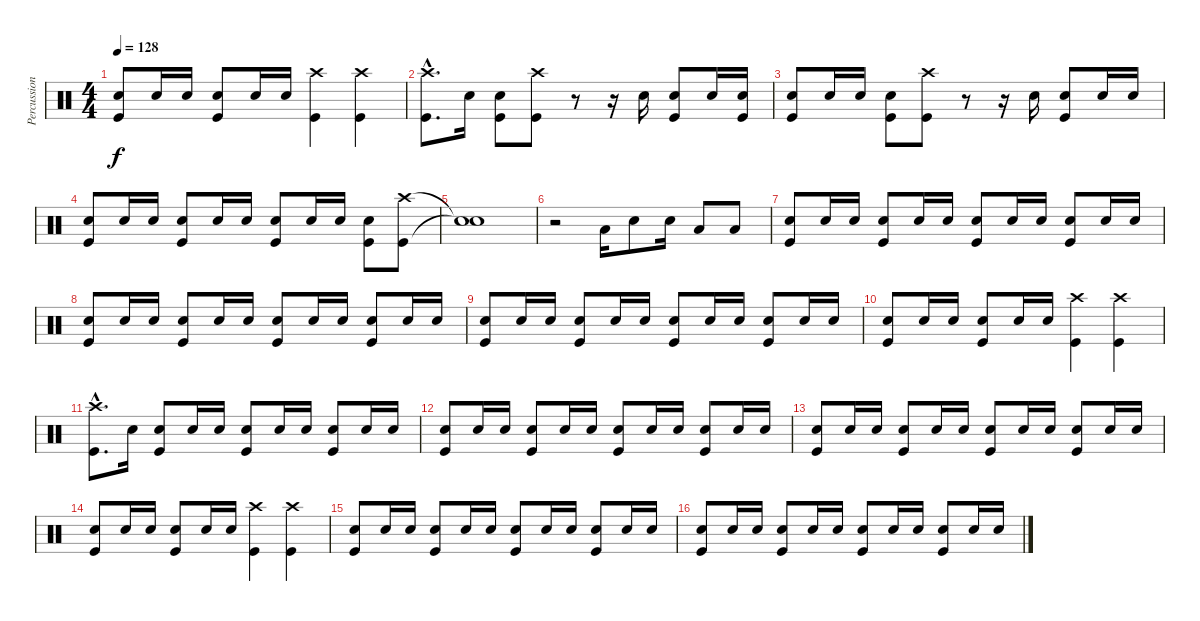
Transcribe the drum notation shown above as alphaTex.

\track ("Percussion" "Percussion") {instrument percussion}
\staff {score}
\articulation defaults
\ts (4 4)
\tempo 128
\clef neutral
\ks c
("Snare (hit) 2" "Kick (hit)").8{dy f} "Snare (hit) 2".16 "Snare (hit) 2".16 ("Snare (hit) 2" "Kick (hit)").8 "Snare (hit) 2".16 "Snare (hit) 2".16 ("Crash high (hit)" "Kick (hit)").4 ("Crash high (hit)" "Kick (hit)").4 |
("Crash high (hit)"{hac} "Kick (hit)"{hac}).8{d} "Snare (hit) 2".16 ("Snare (hit) 2" "Kick (hit)").8 ("Crash high (hit)" "Kick (hit)").8 r.8 r.16 "Snare (hit) 2".16 ("Snare (hit) 2" "Kick (hit)").8 "Snare (hit) 2".16 ("Snare (hit) 2" "Kick (hit)").16 |
("Snare (hit) 2" "Kick (hit)").8 "Snare (hit) 2".16 "Snare (hit) 2".16 ("Snare (hit) 2" "Kick (hit)").8 ("Crash high (hit)" "Kick (hit)").8 r.8 r.16 "Snare (hit) 2".16 ("Snare (hit) 2" "Kick (hit)").8 "Snare (hit) 2".16 "Snare (hit) 2".16 |
("Snare (hit) 2" "Kick (hit)").8 "Snare (hit) 2".16 "Snare (hit) 2".16 ("Snare (hit) 2" "Kick (hit)").8 "Snare (hit) 2".16 "Snare (hit) 2".16 ("Snare (hit) 2" "Kick (hit)").8 "Snare (hit) 2".16 "Snare (hit) 2".16 ("Snare (hit) 2" "Kick (hit)").8 ("Crash high (hit)" "Kick (hit)").8 |
("Snare (hit)"{t} "Snare (hit)"{t}).1 |
r.2 "Low Tom (hit)".16 "Snare (hit) 2".8 "Snare (hit) 2".16 "Low Tom (hit)".8 "Low Tom (hit)".8 |
("Snare (hit) 2" "Kick (hit)").8 "Snare (hit) 2".16 "Snare (hit) 2".16 ("Snare (hit) 2" "Kick (hit)").8 "Snare (hit) 2".16 "Snare (hit) 2".16 ("Snare (hit) 2" "Kick (hit)").8 "Snare (hit) 2".16 "Snare (hit) 2".16 ("Snare (hit) 2" "Kick (hit)").8 "Snare (hit) 2".16 "Snare (hit) 2".16 |
("Snare (hit) 2" "Kick (hit)").8 "Snare (hit) 2".16 "Snare (hit) 2".16 ("Snare (hit) 2" "Kick (hit)").8 "Snare (hit) 2".16 "Snare (hit) 2".16 ("Snare (hit) 2" "Kick (hit)").8 "Snare (hit) 2".16 "Snare (hit) 2".16 ("Snare (hit) 2" "Kick (hit)").8 "Snare (hit) 2".16 "Snare (hit) 2".16 |
("Snare (hit) 2" "Kick (hit)").8 "Snare (hit) 2".16 "Snare (hit) 2".16 ("Snare (hit) 2" "Kick (hit)").8 "Snare (hit) 2".16 "Snare (hit) 2".16 ("Snare (hit) 2" "Kick (hit)").8 "Snare (hit) 2".16 "Snare (hit) 2".16 ("Snare (hit) 2" "Kick (hit)").8 "Snare (hit) 2".16 "Snare (hit) 2".16 |
("Snare (hit) 2" "Kick (hit)").8 "Snare (hit) 2".16 "Snare (hit) 2".16 ("Snare (hit) 2" "Kick (hit)").8 "Snare (hit) 2".16 "Snare (hit) 2".16 ("Crash high (hit)" "Kick (hit)").4 ("Crash high (hit)" "Kick (hit)").4 |
("Crash high (hit)"{hac} "Kick (hit)"{hac}).8{d} "Snare (hit) 2".16 ("Snare (hit) 2" "Kick (hit)").8 "Snare (hit) 2".16 "Snare (hit) 2".16 ("Snare (hit) 2" "Kick (hit)").8 "Snare (hit) 2".16 "Snare (hit) 2".16 ("Snare (hit) 2" "Kick (hit)").8 "Snare (hit) 2".16 "Snare (hit) 2".16 |
("Snare (hit) 2" "Kick (hit)").8 "Snare (hit) 2".16 "Snare (hit) 2".16 ("Snare (hit) 2" "Kick (hit)").8 "Snare (hit) 2".16 "Snare (hit) 2".16 ("Snare (hit) 2" "Kick (hit)").8 "Snare (hit) 2".16 "Snare (hit) 2".16 ("Snare (hit) 2" "Kick (hit)").8 "Snare (hit) 2".16 "Snare (hit) 2".16 |
("Snare (hit) 2" "Kick (hit)").8 "Snare (hit) 2".16 "Snare (hit) 2".16 ("Snare (hit) 2" "Kick (hit)").8 "Snare (hit) 2".16 "Snare (hit) 2".16 ("Snare (hit) 2" "Kick (hit)").8 "Snare (hit) 2".16 "Snare (hit) 2".16 ("Snare (hit) 2" "Kick (hit)").8 "Snare (hit) 2".16 "Snare (hit) 2".16 |
("Snare (hit) 2" "Kick (hit)").8 "Snare (hit) 2".16 "Snare (hit) 2".16 ("Snare (hit) 2" "Kick (hit)").8 "Snare (hit) 2".16 "Snare (hit) 2".16 ("Crash high (hit)" "Kick (hit)").4 ("Crash high (hit)" "Kick (hit)").4 |
("Snare (hit) 2" "Kick (hit)").8 "Snare (hit) 2".16 "Snare (hit) 2".16 ("Snare (hit) 2" "Kick (hit)").8 "Snare (hit) 2".16 "Snare (hit) 2".16 ("Snare (hit) 2" "Kick (hit)").8 "Snare (hit) 2".16 "Snare (hit) 2".16 ("Snare (hit) 2" "Kick (hit)").8 "Snare (hit) 2".16 "Snare (hit) 2".16 |
("Snare (hit) 2" "Kick (hit)").8 "Snare (hit) 2".16 "Snare (hit) 2".16 ("Snare (hit) 2" "Kick (hit)").8 "Snare (hit) 2".16 "Snare (hit) 2".16 ("Snare (hit) 2" "Kick (hit)").8 "Snare (hit) 2".16 "Snare (hit) 2".16 ("Snare (hit) 2" "Kick (hit)").8 "Snare (hit) 2".16 "Snare (hit) 2".16
